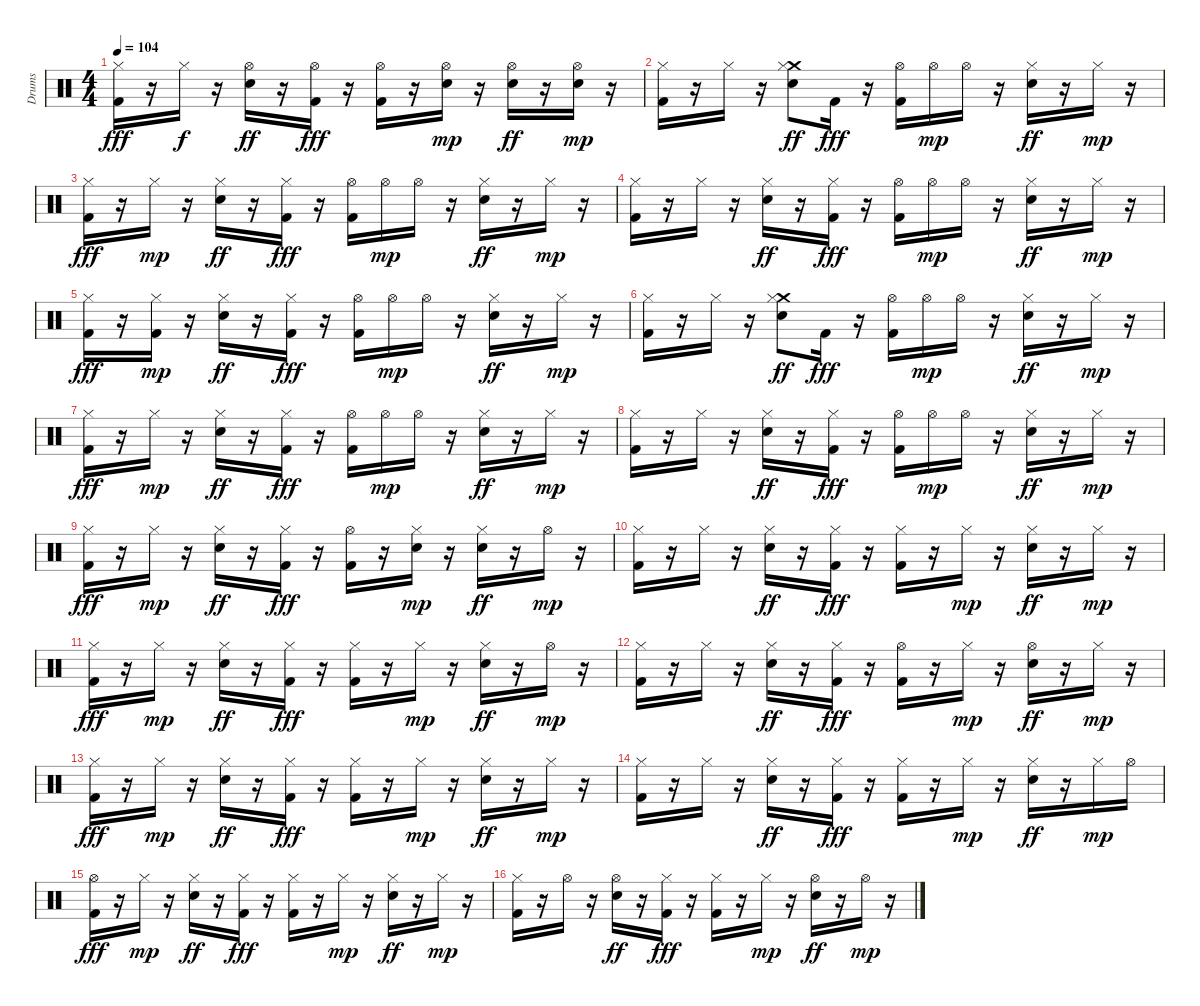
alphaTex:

\track ("Drums" "Drums") {instrument percussion}
\staff {score}
\articulation defaults
\ts (4 4)
\tempo 104
\clef neutral
\ks c
("Hi-Hat (closed)" "Kick (hit) 2").16{dy fff} r.16 "Hi-Hat (closed)".16{dy f} r.16 ("Hi-Hat (open)" "Snare (hit) 2").16{dy ff} r.16 ("Hi-Hat (open)" "Kick (hit) 2").16{dy fff} r.16 ("Hi-Hat (open)" "Kick (hit) 2").16 r.16 ("Snare (hit) 2" "Hi-Hat (open)").16{dy mp} r.16 ("Hi-Hat (open)" "Snare (hit) 2").16{dy ff} r.16 ("Snare (hit) 2" "Hi-Hat (open)").16{dy mp} r.16 |
("Kick (hit) 2" "Hi-Hat (closed)").16 r.16 "Hi-Hat (closed)".16 r.16 ("Crash medium (hit)" "Hi-Hat (closed)" "Snare (hit) 2").8{dy ff} "Kick (hit) 2".16{dy fff} r.16 ("Hi-Hat (open)" "Kick (hit) 2").16 "Hi-Hat (open)".16{dy mp} "Hi-Hat (open)".16 r.16 ("Hi-Hat (closed)" "Snare (hit) 2").16{dy ff} r.16 "Hi-Hat (closed)".16{dy mp} r.16 |
("Hi-Hat (closed)" "Kick (hit) 2").16{dy fff} r.16 "Hi-Hat (closed)".16{dy mp} r.16 ("Hi-Hat (closed)" "Snare (hit) 2").16{dy ff} r.16 ("Hi-Hat (closed)" "Kick (hit) 2").16{dy fff} r.16 ("Hi-Hat (open)" "Kick (hit) 2").16 "Hi-Hat (open)".16{dy mp} "Hi-Hat (open)".16 r.16 ("Hi-Hat (closed)" "Snare (hit) 2").16{dy ff} r.16 "Hi-Hat (closed)".16{dy mp} r.16 |
("Kick (hit) 2" "Hi-Hat (closed)").16 r.16 "Hi-Hat (closed)".16 r.16 ("Hi-Hat (closed)" "Snare (hit) 2").16{dy ff} r.16 ("Hi-Hat (closed)" "Kick (hit) 2").16{dy fff} r.16 ("Hi-Hat (open)" "Kick (hit) 2").16 "Hi-Hat (open)".16{dy mp} "Hi-Hat (open)".16 r.16 ("Hi-Hat (closed)" "Snare (hit) 2").16{dy ff} r.16 "Hi-Hat (closed)".16{dy mp} r.16 |
("Hi-Hat (closed)" "Kick (hit) 2").16{dy fff} r.16 ("Kick (hit) 2" "Hi-Hat (closed)").16{dy mp} r.16 ("Hi-Hat (closed)" "Snare (hit) 2").16{dy ff} r.16 ("Hi-Hat (closed)" "Kick (hit) 2").16{dy fff} r.16 ("Hi-Hat (open)" "Kick (hit) 2").16 "Hi-Hat (open)".16{dy mp} "Hi-Hat (open)".16 r.16 ("Hi-Hat (closed)" "Snare (hit) 2").16{dy ff} r.16 "Hi-Hat (closed)".16{dy mp} r.16 |
("Kick (hit) 2" "Hi-Hat (closed)").16 r.16 "Hi-Hat (closed)".16 r.16 ("Crash medium (hit)" "Hi-Hat (closed)" "Snare (hit) 2").8{dy ff} "Kick (hit) 2".16{dy fff} r.16 ("Hi-Hat (open)" "Kick (hit) 2").16 "Hi-Hat (open)".16{dy mp} "Hi-Hat (open)".16 r.16 ("Hi-Hat (closed)" "Snare (hit) 2").16{dy ff} r.16 "Hi-Hat (closed)".16{dy mp} r.16 |
("Hi-Hat (closed)" "Kick (hit) 2").16{dy fff} r.16 "Hi-Hat (closed)".16{dy mp} r.16 ("Hi-Hat (closed)" "Snare (hit) 2").16{dy ff} r.16 ("Hi-Hat (closed)" "Kick (hit) 2").16{dy fff} r.16 ("Hi-Hat (open)" "Kick (hit) 2").16 "Hi-Hat (open)".16{dy mp} "Hi-Hat (open)".16 r.16 ("Hi-Hat (closed)" "Snare (hit) 2").16{dy ff} r.16 "Hi-Hat (closed)".16{dy mp} r.16 |
("Kick (hit) 2" "Hi-Hat (closed)").16 r.16 "Hi-Hat (closed)".16 r.16 ("Hi-Hat (closed)" "Snare (hit) 2").16{dy ff} r.16 ("Hi-Hat (closed)" "Kick (hit) 2").16{dy fff} r.16 ("Hi-Hat (open)" "Kick (hit) 2").16 "Hi-Hat (open)".16{dy mp} "Hi-Hat (open)".16 r.16 ("Hi-Hat (closed)" "Snare (hit) 2").16{dy ff} r.16 "Hi-Hat (closed)".16{dy mp} r.16 |
("Hi-Hat (closed)" "Kick (hit) 2").16{dy fff} r.16 "Hi-Hat (closed)".16{dy mp} r.16 ("Hi-Hat (closed)" "Snare (hit) 2").16{dy ff} r.16 ("Hi-Hat (closed)" "Kick (hit) 2").16{dy fff} r.16 ("Hi-Hat (open)" "Kick (hit) 2").16 r.16 ("Snare (hit) 2" "Hi-Hat (closed)").16{dy mp} r.16 ("Hi-Hat (closed)" "Snare (hit) 2").16{dy ff} r.16 "Hi-Hat (open)".16{dy mp} r.16 |
("Kick (hit) 2" "Hi-Hat (closed)").16 r.16 "Hi-Hat (closed)".16 r.16 ("Hi-Hat (closed)" "Snare (hit) 2").16{dy ff} r.16 ("Hi-Hat (closed)" "Kick (hit) 2").16{dy fff} r.16 ("Hi-Hat (closed)" "Kick (hit) 2").16 r.16 "Hi-Hat (closed)".16{dy mp} r.16 ("Hi-Hat (closed)" "Snare (hit) 2").16{dy ff} r.16 "Hi-Hat (closed)".16{dy mp} r.16 |
("Hi-Hat (closed)" "Kick (hit) 2").16{dy fff} r.16 "Hi-Hat (closed)".16{dy mp} r.16 ("Hi-Hat (closed)" "Snare (hit) 2").16{dy ff} r.16 ("Hi-Hat (closed)" "Kick (hit) 2").16{dy fff} r.16 ("Hi-Hat (closed)" "Kick (hit) 2").16 r.16 "Hi-Hat (closed)".16{dy mp} r.16 ("Hi-Hat (closed)" "Snare (hit) 2").16{dy ff} r.16 "Hi-Hat (open)".16{dy mp} r.16 |
("Kick (hit) 2" "Hi-Hat (closed)").16 r.16 "Hi-Hat (closed)".16 r.16 ("Hi-Hat (closed)" "Snare (hit) 2").16{dy ff} r.16 ("Hi-Hat (closed)" "Kick (hit) 2").16{dy fff} r.16 ("Hi-Hat (open)" "Kick (hit) 2").16 r.16 "Hi-Hat (closed)".16{dy mp} r.16 ("Hi-Hat (open)" "Snare (hit) 2").16{dy ff} r.16 "Hi-Hat (closed)".16{dy mp} r.16 |
("Hi-Hat (closed)" "Kick (hit) 2").16{dy fff} r.16 "Hi-Hat (closed)".16{dy mp} r.16 ("Hi-Hat (closed)" "Snare (hit) 2").16{dy ff} r.16 ("Hi-Hat (closed)" "Kick (hit) 2").16{dy fff} r.16 ("Hi-Hat (closed)" "Kick (hit) 2").16 r.16 "Hi-Hat (closed)".16{dy mp} r.16 ("Hi-Hat (closed)" "Snare (hit) 2").16{dy ff} r.16 "Hi-Hat (closed)".16{dy mp} r.16 |
("Kick (hit) 2" "Hi-Hat (closed)").16 r.16 "Hi-Hat (closed)".16 r.16 ("Hi-Hat (closed)" "Snare (hit) 2").16{dy ff} r.16 ("Hi-Hat (closed)" "Kick (hit) 2").16{dy fff} r.16 ("Hi-Hat (closed)" "Kick (hit) 2").16 r.16 "Hi-Hat (closed)".16{dy mp} r.16 ("Hi-Hat (closed)" "Snare (hit) 2").16{dy ff} r.16 "Hi-Hat (closed)".16{dy mp} "Hi-Hat (open)".16 |
("Hi-Hat (open)" "Kick (hit) 2").16{dy fff} r.16 "Hi-Hat (closed)".16{dy mp} r.16 ("Hi-Hat (closed)" "Snare (hit) 2").16{dy ff} r.16 ("Hi-Hat (closed)" "Kick (hit) 2").16{dy fff} r.16 ("Hi-Hat (closed)" "Kick (hit) 2").16 r.16 "Hi-Hat (closed)".16{dy mp} r.16 ("Hi-Hat (closed)" "Snare (hit) 2").16{dy ff} r.16 "Hi-Hat (closed)".16{dy mp} r.16 |
("Kick (hit) 2" "Hi-Hat (closed)").16 r.16 "Hi-Hat (open)".16 r.16 ("Hi-Hat (open)" "Snare (hit) 2").16{dy ff} r.16 ("Hi-Hat (closed)" "Kick (hit) 2").16{dy fff} r.16 ("Hi-Hat (closed)" "Kick (hit) 2").16 r.16 "Hi-Hat (closed)".16{dy mp} r.16 ("Hi-Hat (open)" "Snare (hit) 2").16{dy ff} r.16 "Hi-Hat (open)".16{dy mp} r.16
